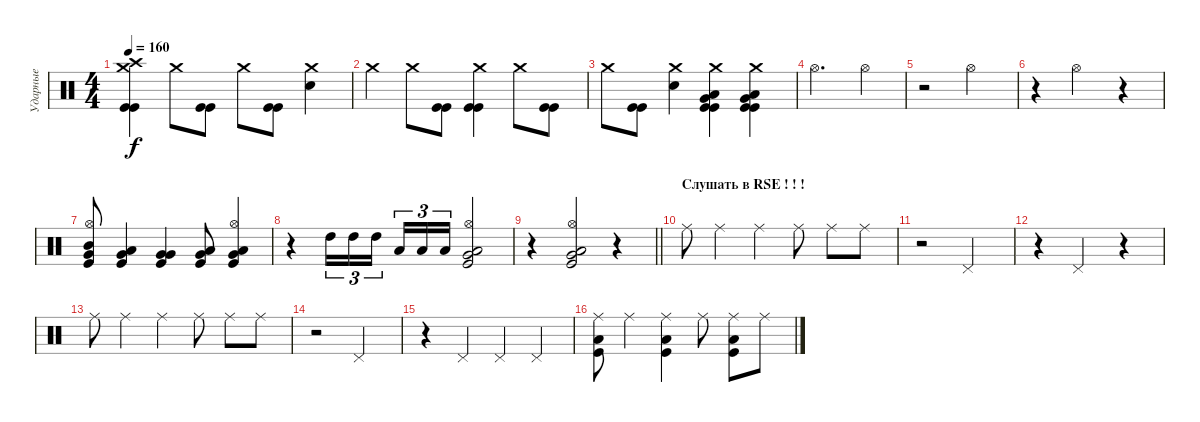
\track ("Ударные" "Ударные") {instrument percussion}
\staff {score}
\articulation defaults
\ts (4 4)
\tempo 160
\clef neutral
\ks c
("Crash high (hit)" "Crash medium (hit)" "Kick (hit)" "Kick (hit)").4{dy f} "Crash medium (hit)".8 ("Kick (hit)" "Kick (hit)").8 "Crash medium (hit)".8 ("Kick (hit)" "Kick (hit)").8 ("Crash medium (hit)" "Snare (hit) 2").4 |
"Crash medium (hit)".4 "Crash medium (hit)".8 ("Kick (hit)" "Kick (hit)").8 ("Crash medium (hit)" "Kick (hit)" "Kick (hit)").4 "Crash medium (hit)".8 ("Kick (hit)" "Kick (hit)").8 |
"Crash medium (hit)".8 ("Kick (hit)" "Kick (hit)").8 ("Crash medium (hit)" "Snare (hit) 2").4 ("Crash medium (hit)" "Very Low Tom (hit)" "Low Tom (hit)" "Kick (hit)" "Kick (hit)").4 ("Crash medium (hit)" "Very Low Tom (hit)" "Low Tom (hit)" "Kick (hit)" "Kick (hit)").4 |
"Hi-Hat (open)".2{d} "Hi-Hat (open)".4 |
r.2 "Hi-Hat (open)".2 |
r.4 "Hi-Hat (open)".2 r.4 |
("Hi-Hat (open)" "Mid Tom (hit)" "Very Low Tom (hit)" "Kick (hit)").8 ("Low Tom (hit)" "Very Low Tom (hit)" "Kick (hit)").4 ("Very Low Tom (hit)" "Very Low Tom (hit)" "Kick (hit)").4 ("Low Floor Tom (hit)" "Very Low Tom (hit)" "Kick (hit)").8 ("Hi-Hat (open)" "Low Floor Tom (hit)" "Very Low Tom (hit)" "Kick (hit)").4 |
r.4 "High Tom (hit)".16{tu (3 2)} "High Tom (hit)".16{tu (3 2)} "High Tom (hit)".16{tu (3 2) beam splitsecondary} "Low Tom (hit)".16{tu (3 2)} "Low Tom (hit)".16{tu (3 2)} "Low Tom (hit)".16{tu (3 2)} ("Hi-Hat (open)" "Low Floor Tom (hit)" "Very Low Tom (hit)" "Kick (hit)").2 |
\barLineRight lightlight
r.4 ("Hi-Hat (open)" "Low Floor Tom (hit)" "Very Low Tom (hit)" "Kick (hit)").2 r.4 |
\section ("" "Слушать в RSE ! ! !")
"Ride (middle)".8 "Ride (middle)".4 "Ride (middle)".4 "Ride (middle)".8 "Ride (middle)".8 "Ride (middle)".8 |
r.2 "Pedal Hi-Hat (hit)".2 |
r.4 "Pedal Hi-Hat (hit)".2 r.4 |
"Ride (middle)".8 "Ride (middle)".4 "Ride (middle)".4 "Ride (middle)".8 "Ride (middle)".8 "Ride (middle)".8 |
r.2 "Pedal Hi-Hat (hit)".2 |
r.4 "Pedal Hi-Hat (hit)".4 "Pedal Hi-Hat (hit)".4 "Pedal Hi-Hat (hit)".4 |
("Ride (middle)" "Low Floor Tom (hit)" "Kick (hit)").8 "Ride (middle)".4 ("Ride (middle)" "Low Floor Tom (hit)" "Kick (hit)").4 "Ride (middle)".8 ("Ride (middle)" "Low Floor Tom (hit)" "Kick (hit)").8 "Ride (middle)".8
